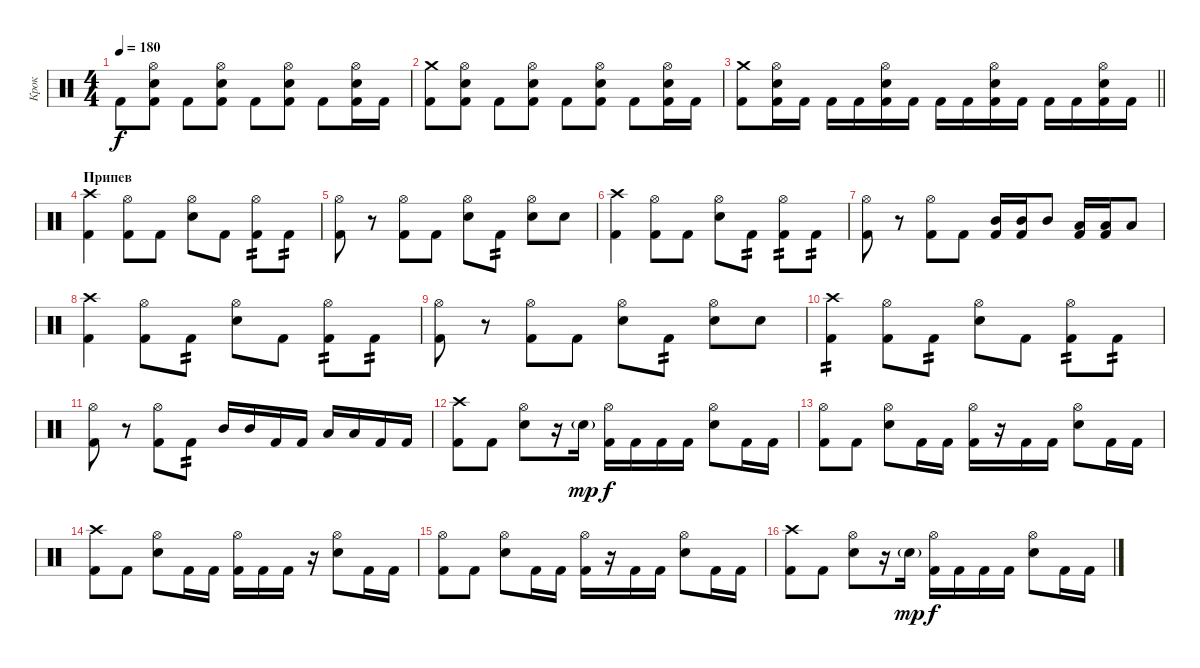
\track ("Крок" "Крок") {instrument percussion}
\staff {score}
\articulation defaults
\ts (4 4)
\tempo 180
\clef neutral
\ks c "Kick (hit) 2".8{dy f}
("Kick (hit) 2" "Electric Snare (hit)" "Hi-Hat (open)").8 "Kick (hit) 2".8 ("Kick (hit) 2" "Electric Snare (hit)" "Hi-Hat (open)").8 "Kick (hit) 2".8 ("Kick (hit) 2" "Electric Snare (hit)" "Hi-Hat (open)").8 "Kick (hit) 2".8 ("Kick (hit) 2" "Electric Snare (hit)" "Hi-Hat (open)").16 "Kick (hit) 2".16 |
("Kick (hit) 2" "Crash medium (hit)").8 ("Kick (hit) 2" "Electric Snare (hit)" "Hi-Hat (open)").8 "Kick (hit) 2".8 ("Kick (hit) 2" "Electric Snare (hit)" "Hi-Hat (open)").8 "Kick (hit) 2".8 ("Kick (hit) 2" "Electric Snare (hit)" "Hi-Hat (open)").8 "Kick (hit) 2".8 ("Kick (hit) 2" "Electric Snare (hit)" "Hi-Hat (open)").16 "Kick (hit) 2".16 |
\barLineRight lightlight
("Kick (hit) 2" "Crash medium (hit)").8 ("Kick (hit) 2" "Electric Snare (hit)" "Hi-Hat (open)").16 "Kick (hit) 2".16 "Kick (hit) 2".16 "Kick (hit) 2".16 ("Kick (hit) 2" "Electric Snare (hit)" "Hi-Hat (open)").16 "Kick (hit) 2".16 "Kick (hit) 2".16 "Kick (hit) 2".16 ("Kick (hit) 2" "Electric Snare (hit)" "Hi-Hat (open)").16 "Kick (hit) 2".16 "Kick (hit) 2".16 "Kick (hit) 2".16 ("Kick (hit) 2" "Electric Snare (hit)" "Hi-Hat (open)").16 "Kick (hit) 2".16 |
\section ("" "Припев")
("Kick (hit) 2" "Crash high (hit)").4 ("Kick (hit) 2" "Hi-Hat (open)").8 "Kick (hit) 2".8 ("Electric Snare (hit)" "Hi-Hat (open)").8 "Kick (hit) 2".8 ("Kick (hit) 2" "Hi-Hat (open)").8{tp 2} "Kick (hit) 2".8{tp 2} |
("Kick (hit) 2" "Hi-Hat (open)").8 r.8 ("Kick (hit) 2" "Hi-Hat (open)").8 "Kick (hit) 2".8 ("Electric Snare (hit)" "Hi-Hat (open)").8 "Kick (hit) 2".8{tp 2} ("Electric Snare (hit)" "Hi-Hat (open)").8 "Electric Snare (hit)".8 |
("Kick (hit) 2" "Crash high (hit)").4 ("Kick (hit) 2" "Hi-Hat (open)").8 "Kick (hit) 2".8 ("Electric Snare (hit)" "Hi-Hat (open)").8 "Kick (hit) 2".8{tp 2} ("Kick (hit) 2" "Hi-Hat (open)").8{tp 2} "Kick (hit) 2".8{tp 2} |
("Kick (hit) 2" "Hi-Hat (open)").8 r.8 ("Kick (hit) 2" "Hi-Hat (open)").8 "Kick (hit) 2".8 ("Mid Tom (hit)" "Kick (hit) 2").16 ("Mid Tom (hit)" "Kick (hit) 2").16 "Mid Tom (hit)".8 ("Low Tom (hit)" "Kick (hit) 2").16 ("Low Tom (hit)" "Kick (hit) 2").16 "Low Tom (hit)".8 |
("Kick (hit) 2" "Crash high (hit)").4 ("Kick (hit) 2" "Hi-Hat (open)").8 "Kick (hit) 2".8{tp 2} ("Electric Snare (hit)" "Hi-Hat (open)").8 "Kick (hit) 2".8 ("Kick (hit) 2" "Hi-Hat (open)").8{tp 2} "Kick (hit) 2".8{tp 2} |
("Kick (hit) 2" "Hi-Hat (open)").8 r.8 ("Kick (hit) 2" "Hi-Hat (open)").8 "Kick (hit) 2".8 ("Electric Snare (hit)" "Hi-Hat (open)").8 "Kick (hit) 2".8{tp 2} ("Electric Snare (hit)" "Hi-Hat (open)").8 "Electric Snare (hit)".8 |
("Kick (hit) 2" "Crash high (hit)").4{tp 2} ("Kick (hit) 2" "Hi-Hat (open)").8 "Kick (hit) 2".8{tp 2} ("Electric Snare (hit)" "Hi-Hat (open)").8 "Kick (hit) 2".8 ("Kick (hit) 2" "Hi-Hat (open)").8{tp 2} "Kick (hit) 2".8{tp 2} |
("Kick (hit) 2" "Hi-Hat (open)").8 r.8 ("Kick (hit) 2" "Hi-Hat (open)").8 "Kick (hit) 2".8{tp 2} "Mid Tom (hit)".16 "Mid Tom (hit)".16 "Kick (hit) 2".16 "Kick (hit) 2".16 "Low Tom (hit)".16 "Low Tom (hit)".16 "Kick (hit) 2".16 "Kick (hit) 2".16 |
("Kick (hit) 2" "Crash high (hit)").8 "Kick (hit) 2".8 ("Electric Snare (hit)" "Hi-Hat (open)").8 r.16 "Electric Snare (hit)"{g}.16{dy mp} ("Kick (hit) 2" "Hi-Hat (open)").16{dy f} "Kick (hit) 2".16 "Kick (hit) 2".16 "Kick (hit) 2".16 ("Electric Snare (hit)" "Hi-Hat (open)").8 "Kick (hit) 2".16 "Kick (hit) 2".16 |
("Kick (hit) 2" "Hi-Hat (open)").8 "Kick (hit) 2".8 ("Electric Snare (hit)" "Hi-Hat (open)").8 "Kick (hit) 2".16 "Kick (hit) 2".16 ("Kick (hit) 2" "Hi-Hat (open)").16 r.16 "Kick (hit) 2".16 "Kick (hit) 2".16 ("Electric Snare (hit)" "Hi-Hat (open)").8 "Kick (hit) 2".16 "Kick (hit) 2".16 |
("Kick (hit) 2" "Crash high (hit)").8 "Kick (hit) 2".8 ("Electric Snare (hit)" "Hi-Hat (open)").8 "Kick (hit) 2".16 "Kick (hit) 2".16 ("Kick (hit) 2" "Hi-Hat (open)").16 "Kick (hit) 2".16 "Kick (hit) 2".16 r.16 ("Electric Snare (hit)" "Hi-Hat (open)").8 "Kick (hit) 2".16 "Kick (hit) 2".16 |
("Kick (hit) 2" "Hi-Hat (open)").8 "Kick (hit) 2".8 ("Electric Snare (hit)" "Hi-Hat (open)").8 "Kick (hit) 2".16 "Kick (hit) 2".16 ("Kick (hit) 2" "Hi-Hat (open)").16 r.16 "Kick (hit) 2".16 "Kick (hit) 2".16 ("Electric Snare (hit)" "Hi-Hat (open)").8 "Kick (hit) 2".16 "Kick (hit) 2".16 |
("Kick (hit) 2" "Crash high (hit)").8 "Kick (hit) 2".8 ("Electric Snare (hit)" "Hi-Hat (open)").8 r.16 "Electric Snare (hit)"{g}.16{dy mp} ("Kick (hit) 2" "Hi-Hat (open)").16{dy f} "Kick (hit) 2".16 "Kick (hit) 2".16 "Kick (hit) 2".16 ("Electric Snare (hit)" "Hi-Hat (open)").8 "Kick (hit) 2".16 "Kick (hit) 2".16
